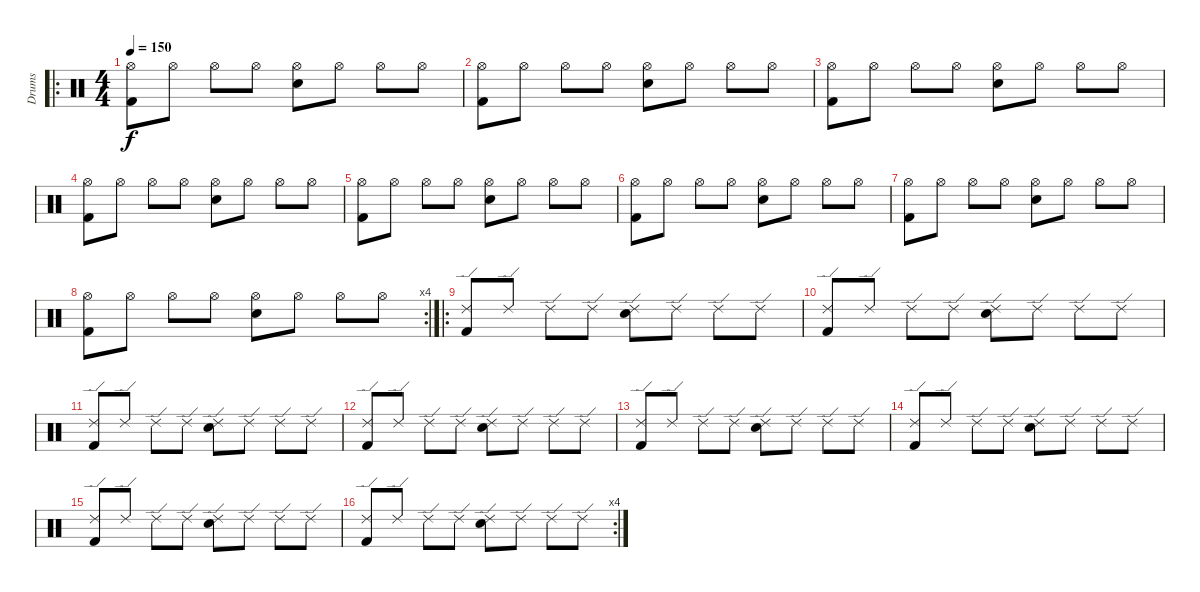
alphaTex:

\track ("Drums" "Drums") {instrument percussion}
\staff {score}
\articulation defaults
\ro
\ts (4 4)
\tempo 150
\clef neutral
\ks c
("Hi-Hat (open)" "Kick (hit) 2").8{dy f} "Hi-Hat (open)".8 "Hi-Hat (open)".8 "Hi-Hat (open)".8 ("Hi-Hat (open)" "Electric Snare (hit)").8 "Hi-Hat (open)".8 "Hi-Hat (open)".8 "Hi-Hat (open)".8 |
("Hi-Hat (open)" "Kick (hit) 2").8 "Hi-Hat (open)".8 "Hi-Hat (open)".8 "Hi-Hat (open)".8 ("Hi-Hat (open)" "Electric Snare (hit)").8 "Hi-Hat (open)".8 "Hi-Hat (open)".8 "Hi-Hat (open)".8 |
("Hi-Hat (open)" "Kick (hit) 2").8 "Hi-Hat (open)".8 "Hi-Hat (open)".8 "Hi-Hat (open)".8 ("Hi-Hat (open)" "Electric Snare (hit)").8 "Hi-Hat (open)".8 "Hi-Hat (open)".8 "Hi-Hat (open)".8 |
("Hi-Hat (open)" "Kick (hit) 2").8 "Hi-Hat (open)".8 "Hi-Hat (open)".8 "Hi-Hat (open)".8 ("Hi-Hat (open)" "Electric Snare (hit)").8 "Hi-Hat (open)".8 "Hi-Hat (open)".8 "Hi-Hat (open)".8 |
("Hi-Hat (open)" "Kick (hit) 2").8 "Hi-Hat (open)".8 "Hi-Hat (open)".8 "Hi-Hat (open)".8 ("Hi-Hat (open)" "Electric Snare (hit)").8 "Hi-Hat (open)".8 "Hi-Hat (open)".8 "Hi-Hat (open)".8 |
("Hi-Hat (open)" "Kick (hit) 2").8 "Hi-Hat (open)".8 "Hi-Hat (open)".8 "Hi-Hat (open)".8 ("Hi-Hat (open)" "Electric Snare (hit)").8 "Hi-Hat (open)".8 "Hi-Hat (open)".8 "Hi-Hat (open)".8 |
("Hi-Hat (open)" "Kick (hit) 2").8 "Hi-Hat (open)".8 "Hi-Hat (open)".8 "Hi-Hat (open)".8 ("Hi-Hat (open)" "Electric Snare (hit)").8 "Hi-Hat (open)".8 "Hi-Hat (open)".8 "Hi-Hat (open)".8 |
\rc 4
("Hi-Hat (open)" "Kick (hit) 2").8 "Hi-Hat (open)".8 "Hi-Hat (open)".8 "Hi-Hat (open)".8 ("Hi-Hat (open)" "Electric Snare (hit)").8 "Hi-Hat (open)".8 "Hi-Hat (open)".8 "Hi-Hat (open)".8 |
\ro
("Ride (edge) 2" "Kick (hit) 2").8 "Ride (edge) 2".8 "Ride (edge) 2".8 "Ride (edge) 2".8 ("Ride (edge) 2" "Electric Snare (hit)").8 "Ride (edge) 2".8 "Ride (edge) 2".8 "Ride (edge) 2".8 |
("Ride (edge) 2" "Kick (hit) 2").8 "Ride (edge) 2".8 "Ride (edge) 2".8 "Ride (edge) 2".8 ("Ride (edge) 2" "Electric Snare (hit)").8 "Ride (edge) 2".8 "Ride (edge) 2".8 "Ride (edge) 2".8 |
("Ride (edge) 2" "Kick (hit) 2").8 "Ride (edge) 2".8 "Ride (edge) 2".8 "Ride (edge) 2".8 ("Ride (edge) 2" "Electric Snare (hit)").8 "Ride (edge) 2".8 "Ride (edge) 2".8 "Ride (edge) 2".8 |
("Ride (edge) 2" "Kick (hit) 2").8 "Ride (edge) 2".8 "Ride (edge) 2".8 "Ride (edge) 2".8 ("Ride (edge) 2" "Electric Snare (hit)").8 "Ride (edge) 2".8 "Ride (edge) 2".8 "Ride (edge) 2".8 |
("Ride (edge) 2" "Kick (hit) 2").8 "Ride (edge) 2".8 "Ride (edge) 2".8 "Ride (edge) 2".8 ("Ride (edge) 2" "Electric Snare (hit)").8 "Ride (edge) 2".8 "Ride (edge) 2".8 "Ride (edge) 2".8 |
("Ride (edge) 2" "Kick (hit) 2").8 "Ride (edge) 2".8 "Ride (edge) 2".8 "Ride (edge) 2".8 ("Ride (edge) 2" "Electric Snare (hit)").8 "Ride (edge) 2".8 "Ride (edge) 2".8 "Ride (edge) 2".8 |
("Ride (edge) 2" "Kick (hit) 2").8 "Ride (edge) 2".8 "Ride (edge) 2".8 "Ride (edge) 2".8 ("Ride (edge) 2" "Electric Snare (hit)").8 "Ride (edge) 2".8 "Ride (edge) 2".8 "Ride (edge) 2".8 |
\rc 4
("Ride (edge) 2" "Kick (hit) 2").8 "Ride (edge) 2".8 "Ride (edge) 2".8 "Ride (edge) 2".8 ("Ride (edge) 2" "Electric Snare (hit)").8 "Ride (edge) 2".8 "Ride (edge) 2".8 "Ride (edge) 2".8
